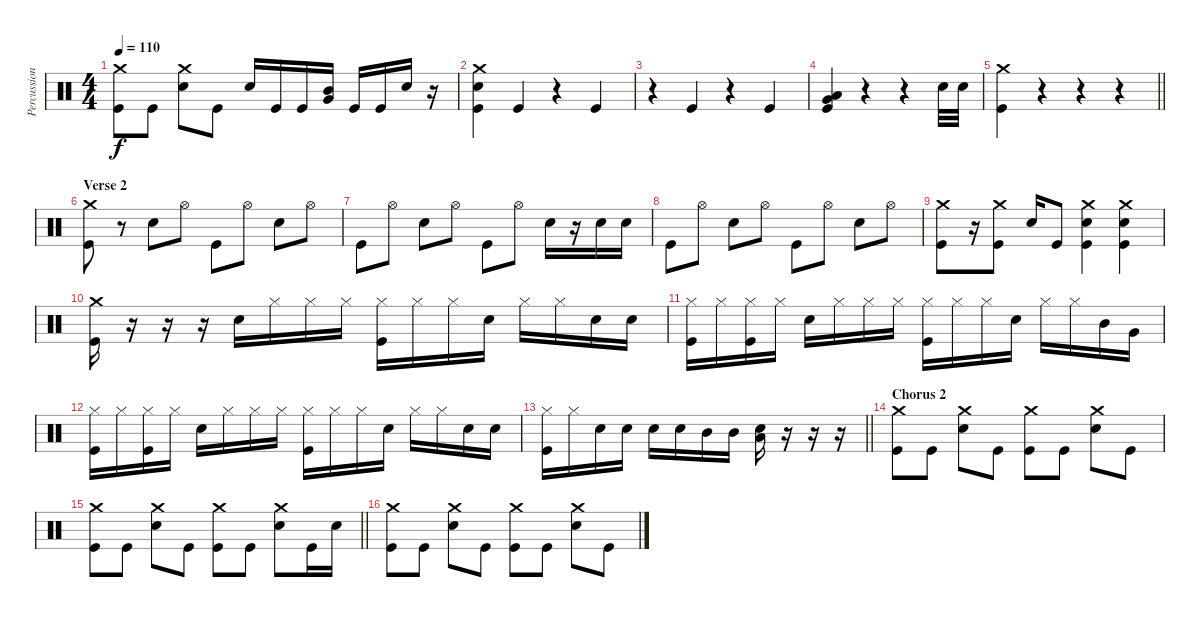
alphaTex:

\track ("Percussion" "Percussion") {instrument percussion}
\staff {score}
\articulation defaults
\ts (4 4)
\tempo 110
\clef neutral
\ks c
("Crash medium (hit)" "Kick (hit)").8{dy f} "Kick (hit)".8 ("Crash medium (hit)" "Electric Snare (hit)").8 "Kick (hit)".8 "Electric Snare (hit)".16 "Kick (hit)".16 "Kick (hit)".16 ("Mid Tom (hit)" "Very Low Tom (hit)").16 "Kick (hit)".16 "Kick (hit)".16 "Electric Snare (hit)".16 r.16 |
("Crash medium (hit)" "Electric Snare (hit)" "Kick (hit)").4 "Kick (hit)".4 r.4 "Kick (hit)".4 |
r.4 "Kick (hit)".4 r.4 "Kick (hit)".4 |
("Very Low Tom (hit)" "Low Floor Tom (hit)" "Kick (hit)").4 r.4 r.4 "Electric Snare (hit)".32 "Electric Snare (hit)".32 |
\barLineRight lightlight
("Crash medium (hit)" "Kick (hit)").4 r.4 r.4 r.4 |
\section ("" "Verse 2")
("Crash medium (hit)" "Kick (hit)").8 r.8 "Electric Snare (hit)".8 "Hi-Hat (open)".8 "Kick (hit)".8 "Hi-Hat (open)".8 "Electric Snare (hit)".8 "Hi-Hat (open)".8 |
"Kick (hit)".8 "Hi-Hat (open)".8 "Electric Snare (hit)".8 "Hi-Hat (open)".8 "Kick (hit)".8 "Hi-Hat (open)".8 "Electric Snare (hit)".16 r.16 "Electric Snare (hit)".16 "Electric Snare (hit)".16 |
"Kick (hit)".8 "Hi-Hat (open)".8 "Electric Snare (hit)".8 "Hi-Hat (open)".8 "Kick (hit)".8 "Hi-Hat (open)".8 "Electric Snare (hit)".8 "Hi-Hat (open)".8 |
("Crash medium (hit)" "Kick (hit)").8 r.16 ("Crash medium (hit)" "Kick (hit)").8 "Electric Snare (hit)".16 "Kick (hit)".8 ("Crash medium (hit)" "Electric Snare (hit)" "Kick (hit)").4 ("Crash medium (hit)" "Electric Snare (hit)" "Kick (hit)").4 |
("Crash medium (hit)" "Kick (hit)").16 r.16 r.16 r.16 "Electric Snare (hit)".16 "Hi-Hat (closed)".16 "Hi-Hat (closed)".16 "Hi-Hat (closed)".16 ("Hi-Hat (closed)" "Kick (hit)").16 "Hi-Hat (closed)".16 "Hi-Hat (closed)".16 "Electric Snare (hit)".16 "Hi-Hat (closed)".16 "Hi-Hat (closed)".16 "Electric Snare (hit)".16 "Electric Snare (hit)".16 |
("Hi-Hat (closed)" "Kick (hit)").16 "Hi-Hat (closed)".16 ("Hi-Hat (closed)" "Kick (hit)").16 "Hi-Hat (closed)".16 "Electric Snare (hit)".16 "Hi-Hat (closed)".16 "Hi-Hat (closed)".16 "Hi-Hat (closed)".16 ("Hi-Hat (closed)" "Kick (hit)").16 "Hi-Hat (closed)".16 "Hi-Hat (closed)".16 "Electric Snare (hit)".16 "Hi-Hat (closed)".16 "Hi-Hat (closed)".16 "Mid Tom (hit)".16 "Very Low Tom (hit)".16 |
("Hi-Hat (closed)" "Kick (hit)").16 "Hi-Hat (closed)".16 ("Hi-Hat (closed)" "Kick (hit)").16 "Hi-Hat (closed)".16 "Electric Snare (hit)".16 "Hi-Hat (closed)".16 "Hi-Hat (closed)".16 "Hi-Hat (closed)".16 ("Hi-Hat (closed)" "Kick (hit)").16 "Hi-Hat (closed)".16 "Hi-Hat (closed)".16 "Electric Snare (hit)".16 "Hi-Hat (closed)".16 "Hi-Hat (closed)".16 "Electric Snare (hit)".16 "Electric Snare (hit)".16 |
\barLineRight lightlight
("Hi-Hat (closed)" "Kick (hit)").16 "Hi-Hat (closed)".16 "Electric Snare (hit)".16 "Electric Snare (hit)".16 "Electric Snare (hit)".16 "Electric Snare (hit)".16 "Mid Tom (hit)".16 "Mid Tom (hit)".16 ("Electric Snare (hit)" "Low Floor Tom (hit)").16 r.16 r.16 r.16 |
\section ("" "Chorus 2")
("Crash medium (hit)" "Kick (hit)").8 "Kick (hit)".8 ("Crash medium (hit)" "Electric Snare (hit)").8 "Kick (hit)".8 ("Crash medium (hit)" "Kick (hit)").8 "Kick (hit)".8 ("Crash medium (hit)" "Electric Snare (hit)").8 "Kick (hit)".8 |
\barLineRight lightlight
("Crash medium (hit)" "Kick (hit)").8 "Kick (hit)".8 ("Crash medium (hit)" "Electric Snare (hit)").8 "Kick (hit)".8 ("Crash medium (hit)" "Kick (hit)").8 "Kick (hit)".8 ("Crash medium (hit)" "Electric Snare (hit)").8 "Kick (hit)".16 "Electric Snare (hit)".16 |
("Crash medium (hit)" "Kick (hit)").8 "Kick (hit)".8 ("Crash medium (hit)" "Electric Snare (hit)").8 "Kick (hit)".8 ("Crash medium (hit)" "Kick (hit)").8 "Kick (hit)".8 ("Crash medium (hit)" "Electric Snare (hit)").8 "Kick (hit)".8
